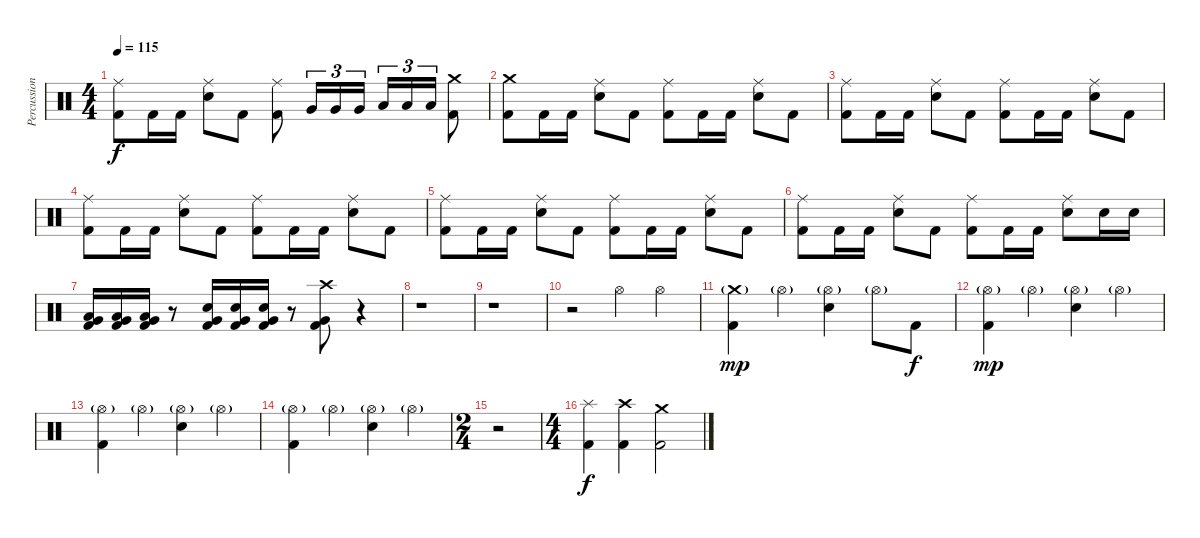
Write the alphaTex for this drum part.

\track ("Percussioni" "Percussion") {instrument percussion}
\staff {score}
\articulation defaults
\ts (4 4)
\tempo 115
\clef neutral
\ks c
("Ride (middle)" "Kick (hit) 2").8{dy f} "Kick (hit) 2".16 "Kick (hit) 2".16 ("Ride (middle)" "Electric Snare (hit)").8 "Kick (hit) 2".8 ("Ride (middle)" "Kick (hit) 2").8 "Very Low Tom (hit)".16{tu (3 2)} "Very Low Tom (hit)".16{tu (3 2)} "Very Low Tom (hit)".16{tu (3 2)} "Low Tom (hit)".16{tu (3 2)} "Low Tom (hit)".16{tu (3 2)} "Low Tom (hit)".16{tu (3 2)} ("Crash medium (hit)" "Kick (hit) 2").8 |
("Crash medium (hit)" "Kick (hit) 2").8 "Kick (hit) 2".16 "Kick (hit) 2".16 ("Ride (middle)" "Electric Snare (hit)").8 "Kick (hit) 2".8 ("Ride (middle)" "Kick (hit) 2").8 "Kick (hit) 2".16 "Kick (hit) 2".16 ("Ride (middle)" "Electric Snare (hit)").8 "Kick (hit) 2".8 |
("Ride (middle)" "Kick (hit) 2").8 "Kick (hit) 2".16 "Kick (hit) 2".16 ("Ride (middle)" "Electric Snare (hit)").8 "Kick (hit) 2".8 ("Ride (middle)" "Kick (hit) 2").8 "Kick (hit) 2".16 "Kick (hit) 2".16 ("Ride (middle)" "Electric Snare (hit)").8 "Kick (hit) 2".8 |
("Ride (middle)" "Kick (hit) 2").8 "Kick (hit) 2".16 "Kick (hit) 2".16 ("Ride (middle)" "Electric Snare (hit)").8 "Kick (hit) 2".8 ("Ride (middle)" "Kick (hit) 2").8 "Kick (hit) 2".16 "Kick (hit) 2".16 ("Ride (middle)" "Electric Snare (hit)").8 "Kick (hit) 2".8 |
("Ride (middle)" "Kick (hit) 2").8 "Kick (hit) 2".16 "Kick (hit) 2".16 ("Ride (middle)" "Electric Snare (hit)").8 "Kick (hit) 2".8 ("Ride (middle)" "Kick (hit) 2").8 "Kick (hit) 2".16 "Kick (hit) 2".16 ("Ride (middle)" "Electric Snare (hit)").8 "Kick (hit) 2".8 |
("Ride (middle)" "Kick (hit) 2").8 "Kick (hit) 2".16 "Kick (hit) 2".16 ("Ride (middle)" "Electric Snare (hit)").8 "Kick (hit) 2".8 ("Ride (middle)" "Kick (hit) 2").8 "Kick (hit) 2".16 "Kick (hit) 2".16 ("Ride (middle)" "Electric Snare (hit)").8 "Electric Snare (hit)".16 "Electric Snare (hit)".16 |
("Low Tom (hit)" "Very Low Tom (hit)" "Kick (hit) 2").16 ("Low Tom (hit)" "Very Low Tom (hit)" "Kick (hit) 2").16 ("Low Tom (hit)" "Very Low Tom (hit)" "Kick (hit) 2").16 r.8 ("Electric Snare (hit)" "Very Low Tom (hit)" "Kick (hit) 2").16 ("Electric Snare (hit)" "Very Low Tom (hit)" "Kick (hit) 2").16 ("Electric Snare (hit)" "Very Low Tom (hit)" "Kick (hit) 2").16 r.8 ("Crash high (hit)" "Very Low Tom (hit)" "Kick (hit) 2").8 r.4 |
r.1 |
r.1 |
r.2 "Hi-Hat (open)".4 "Hi-Hat (open)".4 |
("Crash medium (hit)"{g} "Kick (hit) 2").4{dy mp} "Hi-Hat (open)"{g}.4 ("Hi-Hat (open)"{g} "Electric Snare (hit)").4 "Hi-Hat (open)"{g}.8 "Kick (hit) 2".8{dy f} |
("Hi-Hat (open)"{g} "Kick (hit) 2").4{dy mp} "Hi-Hat (open)"{g}.4 ("Hi-Hat (open)"{g} "Electric Snare (hit)").4 "Hi-Hat (open)"{g}.4 |
("Hi-Hat (open)"{g} "Kick (hit) 2").4 "Hi-Hat (open)"{g}.4 ("Hi-Hat (open)"{g} "Electric Snare (hit)").4 "Hi-Hat (open)"{g}.4 |
("Hi-Hat (open)"{g} "Kick (hit) 2").4 "Hi-Hat (open)"{g}.4 ("Hi-Hat (open)"{g} "Electric Snare (hit)").4 "Hi-Hat (open)"{g}.4 |
\ts (2 4)
r.2 |
\ts (4 4)
("Splash (hit)" "Kick (hit) 2").4{dy f} ("Crash high (hit)" "Kick (hit) 2").4 ("Crash medium (hit)" "Kick (hit) 2").2
